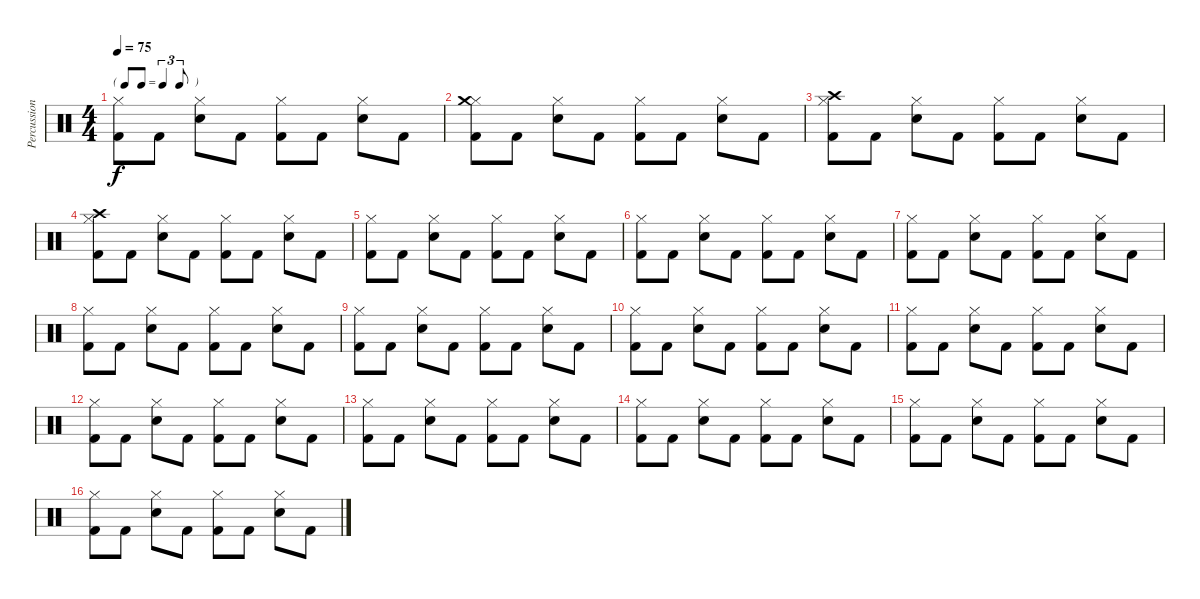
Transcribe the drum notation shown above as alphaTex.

\track ("Percussions" "Percussion") {instrument percussion}
\staff {score}
\articulation defaults
\ts (4 4)
\tf triplet8th
\tempo 75
\clef neutral
\ks c
("Hi-Hat (closed)" "Kick (hit) 2").8{dy f} "Kick (hit) 2".8 ("Hi-Hat (closed)" "Snare (hit) 2").8 "Kick (hit) 2".8 ("Hi-Hat (closed)" "Kick (hit) 2").8 "Kick (hit) 2".8 ("Hi-Hat (closed)" "Snare (hit) 2").8 "Kick (hit) 2".8 |
("Hi-Hat (closed)" "Crash medium (hit)" "Kick (hit) 2").8 "Kick (hit) 2".8 ("Hi-Hat (closed)" "Snare (hit) 2").8 "Kick (hit) 2".8 ("Hi-Hat (closed)" "Kick (hit) 2").8 "Kick (hit) 2".8 ("Hi-Hat (closed)" "Snare (hit) 2").8 "Kick (hit) 2".8 |
("Hi-Hat (closed)" "Crash high (hit)" "Kick (hit) 2").8 "Kick (hit) 2".8 ("Hi-Hat (closed)" "Snare (hit) 2").8 "Kick (hit) 2".8 ("Hi-Hat (closed)" "Kick (hit) 2").8 "Kick (hit) 2".8 ("Hi-Hat (closed)" "Snare (hit) 2").8 "Kick (hit) 2".8 |
("Hi-Hat (closed)" "Crash high (hit)" "Kick (hit) 2").8 "Kick (hit) 2".8 ("Hi-Hat (closed)" "Snare (hit) 2").8 "Kick (hit) 2".8 ("Hi-Hat (closed)" "Kick (hit) 2").8 "Kick (hit) 2".8 ("Hi-Hat (closed)" "Snare (hit) 2").8 "Kick (hit) 2".8 |
("Hi-Hat (closed)" "Kick (hit) 2").8 "Kick (hit) 2".8 ("Hi-Hat (closed)" "Snare (hit) 2").8 "Kick (hit) 2".8 ("Hi-Hat (closed)" "Kick (hit) 2").8 "Kick (hit) 2".8 ("Hi-Hat (closed)" "Snare (hit) 2").8 "Kick (hit) 2".8 |
("Hi-Hat (closed)" "Kick (hit) 2").8 "Kick (hit) 2".8 ("Hi-Hat (closed)" "Snare (hit) 2").8 "Kick (hit) 2".8 ("Hi-Hat (closed)" "Kick (hit) 2").8 "Kick (hit) 2".8 ("Hi-Hat (closed)" "Snare (hit) 2").8 "Kick (hit) 2".8 |
("Hi-Hat (closed)" "Kick (hit) 2").8 "Kick (hit) 2".8 ("Hi-Hat (closed)" "Snare (hit) 2").8 "Kick (hit) 2".8 ("Hi-Hat (closed)" "Kick (hit) 2").8 "Kick (hit) 2".8 ("Hi-Hat (closed)" "Snare (hit) 2").8 "Kick (hit) 2".8 |
("Hi-Hat (closed)" "Kick (hit) 2").8 "Kick (hit) 2".8 ("Hi-Hat (closed)" "Snare (hit) 2").8 "Kick (hit) 2".8 ("Hi-Hat (closed)" "Kick (hit) 2").8 "Kick (hit) 2".8 ("Hi-Hat (closed)" "Snare (hit) 2").8 "Kick (hit) 2".8 |
("Hi-Hat (closed)" "Kick (hit) 2").8 "Kick (hit) 2".8 ("Hi-Hat (closed)" "Snare (hit) 2").8 "Kick (hit) 2".8 ("Hi-Hat (closed)" "Kick (hit) 2").8 "Kick (hit) 2".8 ("Hi-Hat (closed)" "Snare (hit) 2").8 "Kick (hit) 2".8 |
("Hi-Hat (closed)" "Kick (hit) 2").8 "Kick (hit) 2".8 ("Hi-Hat (closed)" "Snare (hit) 2").8 "Kick (hit) 2".8 ("Hi-Hat (closed)" "Kick (hit) 2").8 "Kick (hit) 2".8 ("Hi-Hat (closed)" "Snare (hit) 2").8 "Kick (hit) 2".8 |
("Hi-Hat (closed)" "Kick (hit) 2").8 "Kick (hit) 2".8 ("Hi-Hat (closed)" "Snare (hit) 2").8 "Kick (hit) 2".8 ("Hi-Hat (closed)" "Kick (hit) 2").8 "Kick (hit) 2".8 ("Hi-Hat (closed)" "Snare (hit) 2").8 "Kick (hit) 2".8 |
("Hi-Hat (closed)" "Kick (hit) 2").8 "Kick (hit) 2".8 ("Hi-Hat (closed)" "Snare (hit) 2").8 "Kick (hit) 2".8 ("Hi-Hat (closed)" "Kick (hit) 2").8 "Kick (hit) 2".8 ("Hi-Hat (closed)" "Snare (hit) 2").8 "Kick (hit) 2".8 |
("Hi-Hat (closed)" "Kick (hit) 2").8 "Kick (hit) 2".8 ("Hi-Hat (closed)" "Snare (hit) 2").8 "Kick (hit) 2".8 ("Hi-Hat (closed)" "Kick (hit) 2").8 "Kick (hit) 2".8 ("Hi-Hat (closed)" "Snare (hit) 2").8 "Kick (hit) 2".8 |
("Hi-Hat (closed)" "Kick (hit) 2").8 "Kick (hit) 2".8 ("Hi-Hat (closed)" "Snare (hit) 2").8 "Kick (hit) 2".8 ("Hi-Hat (closed)" "Kick (hit) 2").8 "Kick (hit) 2".8 ("Hi-Hat (closed)" "Snare (hit) 2").8 "Kick (hit) 2".8 |
("Hi-Hat (closed)" "Kick (hit) 2").8 "Kick (hit) 2".8 ("Hi-Hat (closed)" "Snare (hit) 2").8 "Kick (hit) 2".8 ("Hi-Hat (closed)" "Kick (hit) 2").8 "Kick (hit) 2".8 ("Hi-Hat (closed)" "Snare (hit) 2").8 "Kick (hit) 2".8 |
("Hi-Hat (closed)" "Kick (hit) 2").8 "Kick (hit) 2".8 ("Hi-Hat (closed)" "Snare (hit) 2").8 "Kick (hit) 2".8 ("Hi-Hat (closed)" "Kick (hit) 2").8 "Kick (hit) 2".8 ("Hi-Hat (closed)" "Snare (hit) 2").8 "Kick (hit) 2".8
